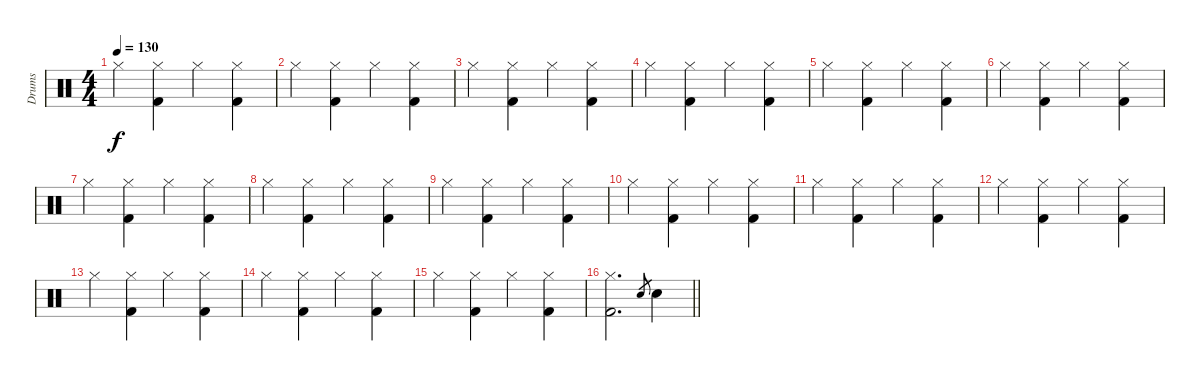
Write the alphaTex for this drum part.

\track ("Drums" "Drums") {instrument percussion}
\staff {score}
\articulation defaults
\ts (4 4)
\tempo 130
\clef neutral
\ks c "Hi-Hat (closed)".4{dy f}
("Hi-Hat (closed)" "Kick (hit) 2").4 "Hi-Hat (closed)".4 ("Hi-Hat (closed)" "Kick (hit) 2").4 |
"Hi-Hat (closed)".4 ("Hi-Hat (closed)" "Kick (hit) 2").4 "Hi-Hat (closed)".4 ("Hi-Hat (closed)" "Kick (hit) 2").4 |
"Hi-Hat (closed)".4 ("Hi-Hat (closed)" "Kick (hit) 2").4 "Hi-Hat (closed)".4 ("Hi-Hat (closed)" "Kick (hit) 2").4 |
"Hi-Hat (closed)".4 ("Hi-Hat (closed)" "Kick (hit) 2").4 "Hi-Hat (closed)".4 ("Hi-Hat (closed)" "Kick (hit) 2").4 |
"Hi-Hat (closed)".4 ("Hi-Hat (closed)" "Kick (hit) 2").4 "Hi-Hat (closed)".4 ("Hi-Hat (closed)" "Kick (hit) 2").4 |
"Hi-Hat (closed)".4 ("Hi-Hat (closed)" "Kick (hit) 2").4 "Hi-Hat (closed)".4 ("Hi-Hat (closed)" "Kick (hit) 2").4 |
"Hi-Hat (closed)".4 ("Hi-Hat (closed)" "Kick (hit) 2").4 "Hi-Hat (closed)".4 ("Hi-Hat (closed)" "Kick (hit) 2").4 |
"Hi-Hat (closed)".4 ("Hi-Hat (closed)" "Kick (hit) 2").4 "Hi-Hat (closed)".4 ("Hi-Hat (closed)" "Kick (hit) 2").4 |
"Hi-Hat (closed)".4 ("Hi-Hat (closed)" "Kick (hit) 2").4 "Hi-Hat (closed)".4 ("Hi-Hat (closed)" "Kick (hit) 2").4 |
"Hi-Hat (closed)".4 ("Hi-Hat (closed)" "Kick (hit) 2").4 "Hi-Hat (closed)".4 ("Hi-Hat (closed)" "Kick (hit) 2").4 |
"Hi-Hat (closed)".4 ("Hi-Hat (closed)" "Kick (hit) 2").4 "Hi-Hat (closed)".4 ("Hi-Hat (closed)" "Kick (hit) 2").4 |
"Hi-Hat (closed)".4 ("Hi-Hat (closed)" "Kick (hit) 2").4 "Hi-Hat (closed)".4 ("Hi-Hat (closed)" "Kick (hit) 2").4 |
"Hi-Hat (closed)".4 ("Hi-Hat (closed)" "Kick (hit) 2").4 "Hi-Hat (closed)".4 ("Hi-Hat (closed)" "Kick (hit) 2").4 |
"Hi-Hat (closed)".4 ("Hi-Hat (closed)" "Kick (hit) 2").4 "Hi-Hat (closed)".4 ("Hi-Hat (closed)" "Kick (hit) 2").4 |
"Hi-Hat (closed)".4 ("Hi-Hat (closed)" "Kick (hit) 2").4 "Hi-Hat (closed)".4 ("Hi-Hat (closed)" "Kick (hit) 2").4 |
\barLineRight lightlight
("Hi-Hat (closed)" "Kick (hit) 2").2{d} "Electric Snare (hit)".8{gr} "Electric Snare (hit)".4
